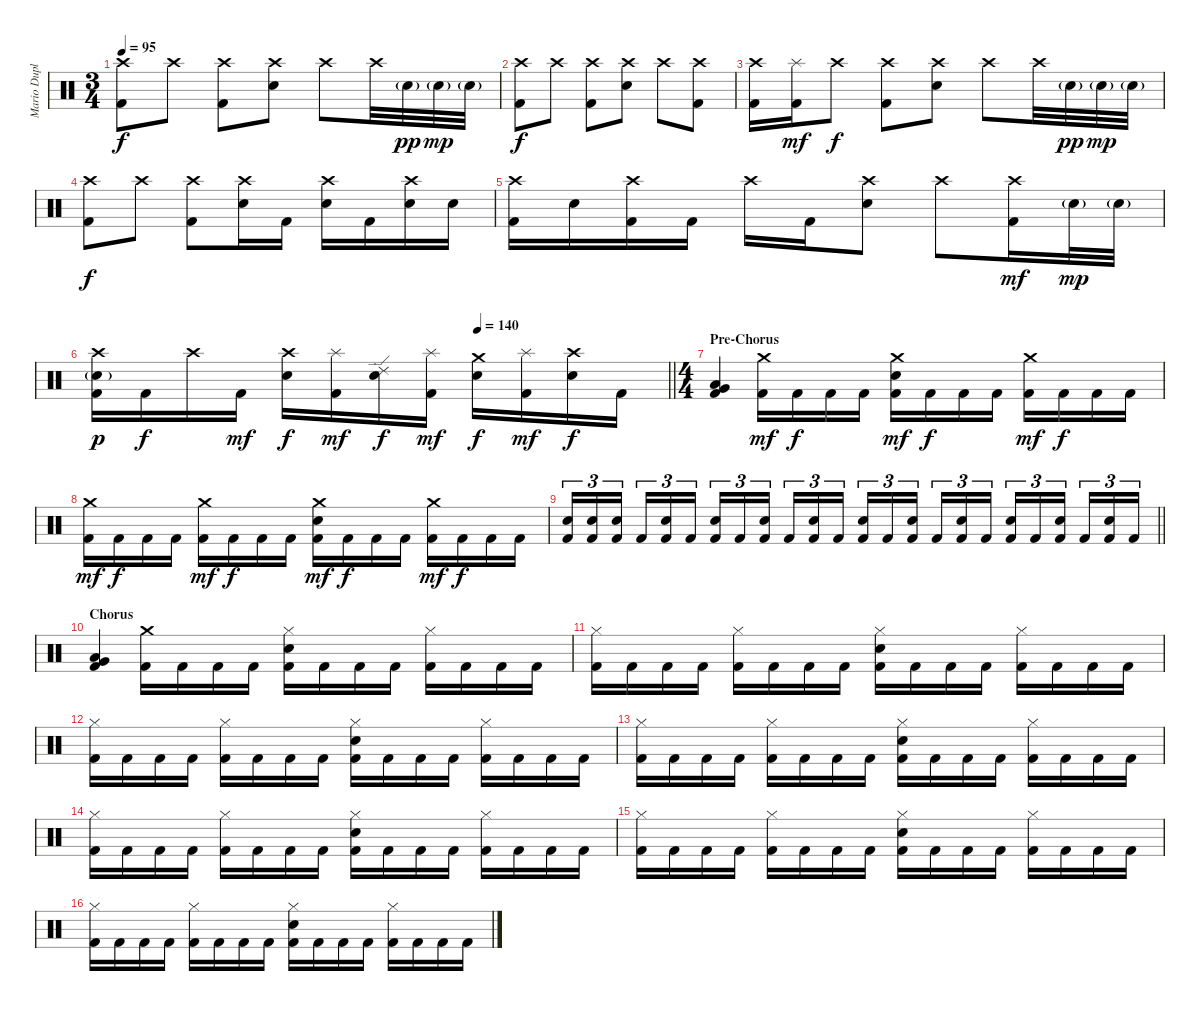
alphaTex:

\track ("Mario Duplantier" "Mario Dupl") {instrument percussion}
\staff {score}
\articulation defaults
\ts (3 4)
\tempo 95
\clef neutral
\ks c
("Crash high (hit)" "Kick (hit) 2").8{dy f} "Crash high (hit)".8 ("Crash high (hit)" "Kick (hit) 2").8 ("Crash high (hit)" "Snare (hit) 2").8 "Crash high (hit)".8 "Crash high (hit)".32 "Snare (hit) 2"{g}.32{dy pp} "Snare (hit) 2"{g}.32{dy mp} "Snare (hit) 2"{g}.32 |
("Crash high (hit)" "Kick (hit) 2").8{dy f} "Crash high (hit)".8 ("Crash high (hit)" "Kick (hit) 2").8 ("Crash high (hit)" "Snare (hit) 2").8 "Crash high (hit)".8 ("Crash high (hit)" "Kick (hit) 2").8 |
("Crash high (hit)" "Kick (hit) 2").16 ("Splash (hit)" "Kick (hit) 2").16{dy mf} "Crash high (hit)".8{dy f} ("Crash high (hit)" "Kick (hit) 2").8 ("Crash high (hit)" "Snare (hit) 2").8 "Crash high (hit)".8 "Crash high (hit)".32 "Snare (hit) 2"{g}.32{dy pp} "Snare (hit) 2"{g}.32{dy mp} "Snare (hit) 2"{g}.32 |
("Crash high (hit)" "Kick (hit) 2").8{dy f} "Crash high (hit)".8 ("Crash high (hit)" "Kick (hit) 2").8 ("Crash high (hit)" "Snare (hit) 2").16 "Kick (hit) 2".16 ("Crash high (hit)" "Snare (hit) 2").16 "Kick (hit) 2".16 ("Crash high (hit)" "Snare (hit) 2").16 "Snare (hit) 2".16 |
("Crash high (hit)" "Kick (hit) 2").16 "Snare (hit) 2".16 ("Crash high (hit)" "Kick (hit) 2").16 "Kick (hit) 2".16 "Crash high (hit)".16 "Kick (hit) 2".16 ("Crash high (hit)" "Snare (hit) 2").8 "Crash high (hit)".8 ("Crash high (hit)" "Kick (hit) 2").16{dy mf} "Snare (hit) 2"{g}.32{dy mp} "Snare (hit) 2"{g}.32 |
\tempo (140 0.6666666666666666)
\barLineRight lightlight
("Crash high (hit)" "Snare (hit) 2"{g} "Kick (hit) 2").16{dy p} "Kick (hit) 2".16{dy f} "Crash high (hit)".16 "Kick (hit) 2".16{dy mf} ("Crash high (hit)" "Snare (hit) 2").16{dy f} ("Splash (hit)" "Kick (hit) 2").16{dy mf} ("Ride (edge) 2" "Snare (hit) 2").16{dy f} ("Splash (hit)" "Kick (hit) 2").16{dy mf} ("Crash medium (hit)" "Snare (hit) 2").16{dy f} ("Splash (hit)" "Kick (hit) 2").16{dy mf} ("Crash high (hit)" "Snare (hit) 2").16{dy f} "Kick (hit) 2".16 |
\ts (4 4)
\section ("" "Pre-Chorus")
("Low Floor Tom (hit)" "Very Low Tom (hit)" "Kick (hit) 2").4 ("Crash medium (hit)" "Kick (hit) 2").16{dy mf} "Kick (hit) 2".16{dy f} "Kick (hit) 2".16 "Kick (hit) 2".16 ("Crash medium (hit)" "Snare (hit) 2" "Kick (hit) 2").16{dy mf} "Kick (hit) 2".16{dy f} "Kick (hit) 2".16 "Kick (hit) 2".16 ("Crash medium (hit)" "Kick (hit) 2").16{dy mf} "Kick (hit) 2".16{dy f} "Kick (hit) 2".16 "Kick (hit) 2".16 |
("Crash medium (hit)" "Kick (hit) 2").16{dy mf} "Kick (hit) 2".16{dy f} "Kick (hit) 2".16 "Kick (hit) 2".16 ("Crash medium (hit)" "Kick (hit) 2").16{dy mf} "Kick (hit) 2".16{dy f} "Kick (hit) 2".16 "Kick (hit) 2".16 ("Crash medium (hit)" "Snare (hit) 2" "Kick (hit) 2").16{dy mf} "Kick (hit) 2".16{dy f} "Kick (hit) 2".16 "Kick (hit) 2".16 ("Crash medium (hit)" "Kick (hit) 2").16{dy mf} "Kick (hit) 2".16{dy f} "Kick (hit) 2".16 "Kick (hit) 2".16 |
\barLineRight lightlight
("Snare (hit) 2" "Kick (hit) 2").16{tu (3 2)} ("Snare (hit) 2" "Kick (hit) 2").16{tu (3 2)} ("Snare (hit) 2" "Kick (hit) 2").16{tu (3 2) beam splitsecondary} "Kick (hit) 2".16{tu (3 2)} ("Snare (hit) 2" "Kick (hit) 2").16{tu (3 2)} "Kick (hit) 2".16{tu (3 2)} ("Snare (hit) 2" "Kick (hit) 2").16{tu (3 2)} "Kick (hit) 2".16{tu (3 2)} ("Snare (hit) 2" "Kick (hit) 2").16{tu (3 2) beam splitsecondary} "Kick (hit) 2".16{tu (3 2)} ("Snare (hit) 2" "Kick (hit) 2").16{tu (3 2)} "Kick (hit) 2".16{tu (3 2)} ("Snare (hit) 2" "Kick (hit) 2").16{tu (3 2)} "Kick (hit) 2".16{tu (3 2)} ("Snare (hit) 2" "Kick (hit) 2").16{tu (3 2) beam splitsecondary} "Kick (hit) 2".16{tu (3 2)} ("Snare (hit) 2" "Kick (hit) 2").16{tu (3 2)} "Kick (hit) 2".16{tu (3 2)} ("Snare (hit) 2" "Kick (hit) 2").16{tu (3 2)} "Kick (hit) 2".16{tu (3 2)} ("Snare (hit) 2" "Kick (hit) 2").16{tu (3 2) beam splitsecondary} "Kick (hit) 2".16{tu (3 2)} ("Snare (hit) 2" "Kick (hit) 2").16{tu (3 2)} "Kick (hit) 2".16{tu (3 2)} |
\section ("" "Chorus")
("Low Floor Tom (hit)" "Very Low Tom (hit)" "Kick (hit) 2").4 ("Crash medium (hit)" "Kick (hit) 2").16 "Kick (hit) 2".16 "Kick (hit) 2".16 "Kick (hit) 2".16 ("Hi-Hat (closed)" "Snare (hit) 2" "Kick (hit) 2").16 "Kick (hit) 2".16 "Kick (hit) 2".16 "Kick (hit) 2".16 ("Hi-Hat (closed)" "Kick (hit) 2").16 "Kick (hit) 2".16 "Kick (hit) 2".16 "Kick (hit) 2".16 |
("Hi-Hat (closed)" "Kick (hit) 2").16 "Kick (hit) 2".16 "Kick (hit) 2".16 "Kick (hit) 2".16 ("Hi-Hat (closed)" "Kick (hit) 2").16 "Kick (hit) 2".16 "Kick (hit) 2".16 "Kick (hit) 2".16 ("Hi-Hat (closed)" "Snare (hit) 2" "Kick (hit) 2").16 "Kick (hit) 2".16 "Kick (hit) 2".16 "Kick (hit) 2".16 ("Hi-Hat (closed)" "Kick (hit) 2").16 "Kick (hit) 2".16 "Kick (hit) 2".16 "Kick (hit) 2".16 |
("Hi-Hat (closed)" "Kick (hit) 2").16 "Kick (hit) 2".16 "Kick (hit) 2".16 "Kick (hit) 2".16 ("Hi-Hat (closed)" "Kick (hit) 2").16 "Kick (hit) 2".16 "Kick (hit) 2".16 "Kick (hit) 2".16 ("Hi-Hat (closed)" "Snare (hit) 2" "Kick (hit) 2").16 "Kick (hit) 2".16 "Kick (hit) 2".16 "Kick (hit) 2".16 ("Hi-Hat (closed)" "Kick (hit) 2").16 "Kick (hit) 2".16 "Kick (hit) 2".16 "Kick (hit) 2".16 |
("Hi-Hat (closed)" "Kick (hit) 2").16 "Kick (hit) 2".16 "Kick (hit) 2".16 "Kick (hit) 2".16 ("Hi-Hat (closed)" "Kick (hit) 2").16 "Kick (hit) 2".16 "Kick (hit) 2".16 "Kick (hit) 2".16 ("Hi-Hat (closed)" "Snare (hit) 2" "Kick (hit) 2").16 "Kick (hit) 2".16 "Kick (hit) 2".16 "Kick (hit) 2".16 ("Hi-Hat (closed)" "Kick (hit) 2").16 "Kick (hit) 2".16 "Kick (hit) 2".16 "Kick (hit) 2".16 |
("Hi-Hat (closed)" "Kick (hit) 2").16 "Kick (hit) 2".16 "Kick (hit) 2".16 "Kick (hit) 2".16 ("Hi-Hat (closed)" "Kick (hit) 2").16 "Kick (hit) 2".16 "Kick (hit) 2".16 "Kick (hit) 2".16 ("Hi-Hat (closed)" "Snare (hit) 2" "Kick (hit) 2").16 "Kick (hit) 2".16 "Kick (hit) 2".16 "Kick (hit) 2".16 ("Hi-Hat (closed)" "Kick (hit) 2").16 "Kick (hit) 2".16 "Kick (hit) 2".16 "Kick (hit) 2".16 |
("Hi-Hat (closed)" "Kick (hit) 2").16 "Kick (hit) 2".16 "Kick (hit) 2".16 "Kick (hit) 2".16 ("Hi-Hat (closed)" "Kick (hit) 2").16 "Kick (hit) 2".16 "Kick (hit) 2".16 "Kick (hit) 2".16 ("Hi-Hat (closed)" "Snare (hit) 2" "Kick (hit) 2").16 "Kick (hit) 2".16 "Kick (hit) 2".16 "Kick (hit) 2".16 ("Hi-Hat (closed)" "Kick (hit) 2").16 "Kick (hit) 2".16 "Kick (hit) 2".16 "Kick (hit) 2".16 |
("Hi-Hat (closed)" "Kick (hit) 2").16 "Kick (hit) 2".16 "Kick (hit) 2".16 "Kick (hit) 2".16 ("Hi-Hat (closed)" "Kick (hit) 2").16 "Kick (hit) 2".16 "Kick (hit) 2".16 "Kick (hit) 2".16 ("Hi-Hat (closed)" "Snare (hit) 2" "Kick (hit) 2").16 "Kick (hit) 2".16 "Kick (hit) 2".16 "Kick (hit) 2".16 ("Hi-Hat (closed)" "Kick (hit) 2").16 "Kick (hit) 2".16 "Kick (hit) 2".16 "Kick (hit) 2".16
